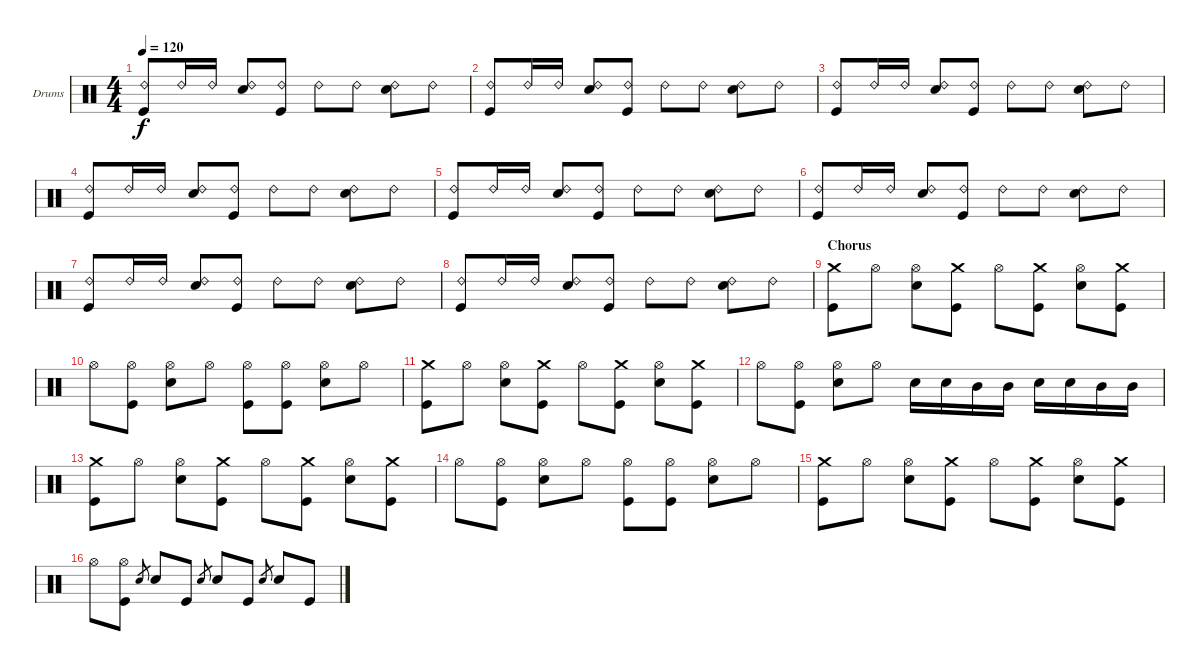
\bracketExtendMode groupsimilarinstruments
\firstSystemTrackNameOrientation horizontal
\otherSystemsTrackNameOrientation horizontal
\track ("Fabrizio" "Drums") {instrument percussion}
\staff {score}
\articulation defaults
\ts (4 4)
\tempo 120
\clef neutral
\ks c
("Ride (bell) 2" "Kick (hit)").8{dy f} "Ride (bell) 2".16 "Ride (bell) 2".16 ("Ride (bell) 2" "Snare (hit) 2").8 ("Ride (bell) 2" "Kick (hit)").8 "Ride (bell) 2".8 "Ride (bell) 2".8 ("Ride (bell) 2" "Snare (hit) 2").8 "Ride (bell) 2".8 |
("Ride (bell) 2" "Kick (hit)").8 "Ride (bell) 2".16 "Ride (bell) 2".16 ("Ride (bell) 2" "Snare (hit) 2").8 ("Ride (bell) 2" "Kick (hit)").8 "Ride (bell) 2".8 "Ride (bell) 2".8 ("Ride (bell) 2" "Snare (hit) 2").8 "Ride (bell) 2".8 |
("Ride (bell) 2" "Kick (hit)").8 "Ride (bell) 2".16 "Ride (bell) 2".16 ("Ride (bell) 2" "Snare (hit) 2").8 ("Ride (bell) 2" "Kick (hit)").8 "Ride (bell) 2".8 "Ride (bell) 2".8 ("Ride (bell) 2" "Snare (hit) 2").8 "Ride (bell) 2".8 |
("Ride (bell) 2" "Kick (hit)").8 "Ride (bell) 2".16 "Ride (bell) 2".16 ("Ride (bell) 2" "Snare (hit) 2").8 ("Ride (bell) 2" "Kick (hit)").8 "Ride (bell) 2".8 "Ride (bell) 2".8 ("Ride (bell) 2" "Snare (hit) 2").8 "Ride (bell) 2".8 |
("Ride (bell) 2" "Kick (hit)").8 "Ride (bell) 2".16 "Ride (bell) 2".16 ("Ride (bell) 2" "Snare (hit) 2").8 ("Ride (bell) 2" "Kick (hit)").8 "Ride (bell) 2".8 "Ride (bell) 2".8 ("Ride (bell) 2" "Snare (hit) 2").8 "Ride (bell) 2".8 |
("Ride (bell) 2" "Kick (hit)").8 "Ride (bell) 2".16 "Ride (bell) 2".16 ("Ride (bell) 2" "Snare (hit) 2").8 ("Ride (bell) 2" "Kick (hit)").8 "Ride (bell) 2".8 "Ride (bell) 2".8 ("Ride (bell) 2" "Snare (hit) 2").8 "Ride (bell) 2".8 |
("Ride (bell) 2" "Kick (hit)").8 "Ride (bell) 2".16 "Ride (bell) 2".16 ("Ride (bell) 2" "Snare (hit) 2").8 ("Ride (bell) 2" "Kick (hit)").8 "Ride (bell) 2".8 "Ride (bell) 2".8 ("Ride (bell) 2" "Snare (hit) 2").8 "Ride (bell) 2".8 |
("Ride (bell) 2" "Kick (hit)").8 "Ride (bell) 2".16 "Ride (bell) 2".16 ("Ride (bell) 2" "Snare (hit) 2").8 ("Ride (bell) 2" "Kick (hit)").8 "Ride (bell) 2".8 "Ride (bell) 2".8 ("Ride (bell) 2" "Snare (hit) 2").8 "Ride (bell) 2".8 |
\section ("" "Chorus")
("Crash medium (hit)" "Kick (hit)").8 "Hi-Hat (open)".8 ("Hi-Hat (open)" "Snare (hit) 2").8 ("Crash medium (hit)" "Kick (hit)").8 "Hi-Hat (open)".8 ("Crash medium (hit)" "Kick (hit)").8 ("Hi-Hat (open)" "Snare (hit) 2").8 ("Crash medium (hit)" "Kick (hit)").8 |
"Hi-Hat (open)".8 ("Hi-Hat (open)" "Kick (hit)").8 ("Hi-Hat (open)" "Snare (hit) 2").8 "Hi-Hat (open)".8 ("Hi-Hat (open)" "Kick (hit)").8 ("Hi-Hat (open)" "Kick (hit)").8 ("Hi-Hat (open)" "Snare (hit) 2").8 "Hi-Hat (open)".8 |
("Crash medium (hit)" "Kick (hit)").8 "Hi-Hat (open)".8 ("Hi-Hat (open)" "Snare (hit) 2").8 ("Crash medium (hit)" "Kick (hit)").8 "Hi-Hat (open)".8 ("Crash medium (hit)" "Kick (hit)").8 ("Hi-Hat (open)" "Snare (hit) 2").8 ("Crash medium (hit)" "Kick (hit)").8 |
"Hi-Hat (open)".8 ("Hi-Hat (open)" "Kick (hit)").8 ("Hi-Hat (open)" "Snare (hit) 2").8 "Hi-Hat (open)".8 "Snare (hit) 2".16 "Snare (hit) 2".16 "Mid Tom (hit)".16 "Mid Tom (hit)".16 "Snare (hit) 2".16 "Snare (hit) 2".16 "Mid Tom (hit)".16 "Mid Tom (hit)".16 |
("Crash medium (hit)" "Kick (hit)").8 "Hi-Hat (open)".8 ("Hi-Hat (open)" "Snare (hit) 2").8 ("Crash medium (hit)" "Kick (hit)").8 "Hi-Hat (open)".8 ("Crash medium (hit)" "Kick (hit)").8 ("Hi-Hat (open)" "Snare (hit) 2").8 ("Crash medium (hit)" "Kick (hit)").8 |
"Hi-Hat (open)".8 ("Hi-Hat (open)" "Kick (hit)").8 ("Hi-Hat (open)" "Snare (hit) 2").8 "Hi-Hat (open)".8 ("Hi-Hat (open)" "Kick (hit)").8 ("Hi-Hat (open)" "Kick (hit)").8 ("Hi-Hat (open)" "Snare (hit) 2").8 "Hi-Hat (open)".8 |
("Crash medium (hit)" "Kick (hit)").8 "Hi-Hat (open)".8 ("Hi-Hat (open)" "Snare (hit) 2").8 ("Crash medium (hit)" "Kick (hit)").8 "Hi-Hat (open)".8 ("Crash medium (hit)" "Kick (hit)").8 ("Hi-Hat (open)" "Snare (hit) 2").8 ("Crash medium (hit)" "Kick (hit)").8 |
"Hi-Hat (open)".8 ("Hi-Hat (open)" "Kick (hit)").8 "Snare (hit) 2".8{gr} "Snare (hit) 2".8 "Kick (hit)".8 "Snare (hit) 2".8{gr} "Snare (hit) 2".8 "Kick (hit)".8 "Snare (hit) 2".8{gr} "Snare (hit) 2".8 "Kick (hit)".8
